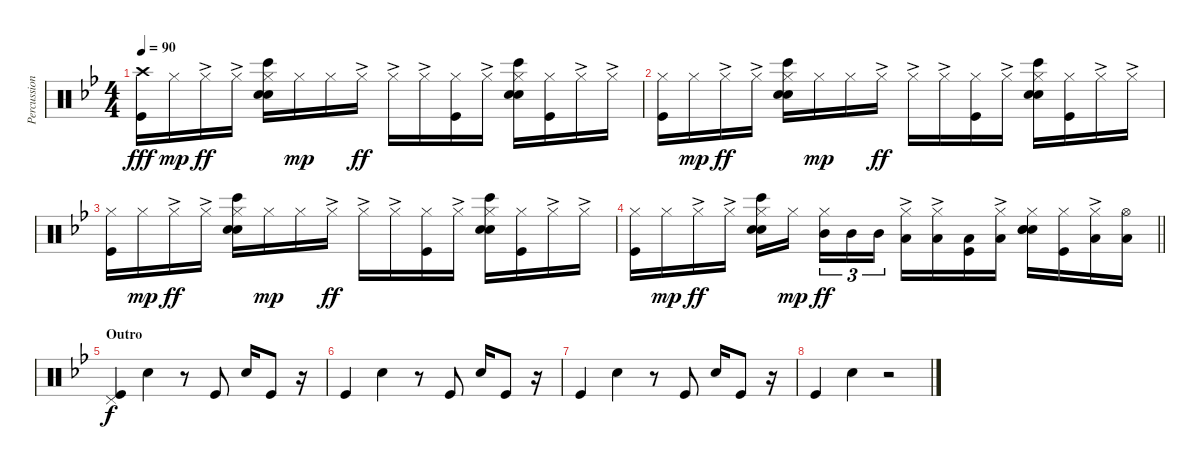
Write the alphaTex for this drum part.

\track ("Percussion" "Percussion") {instrument percussion}
\staff {score}
\articulation defaults
\ts (4 4)
\tempo 90
\clef neutral
\ks bb
("Kick (hit)" "Crash high (hit)").16{dy fff} "Hi-Hat (closed)".16{dy mp} "Hi-Hat (closed)"{ac}.16{dy ff} "Hi-Hat (closed)"{ac}.16 ("Hi-Hat (closed)" "Snare (hit) 2" "Bongo High (hit)" "Hand Clap (hit)").16 "Hi-Hat (closed)".16{dy mp} "Hi-Hat (closed)".16 "Hi-Hat (closed)"{ac}.16{dy ff} "Hi-Hat (closed)"{ac}.16 "Hi-Hat (closed)"{ac}.16 ("Hi-Hat (closed)" "Kick (hit)").16 "Hi-Hat (closed)"{ac}.16 ("Hi-Hat (closed)" "Snare (hit) 2" "Bongo High (hit)" "Hand Clap (hit)").16 ("Hi-Hat (closed)" "Kick (hit)").16 "Hi-Hat (closed)"{ac}.16 "Hi-Hat (closed)"{ac}.16 |
("Hi-Hat (closed)" "Kick (hit)").16 "Hi-Hat (closed)".16{dy mp} "Hi-Hat (closed)"{ac}.16{dy ff} "Hi-Hat (closed)"{ac}.16 ("Hi-Hat (closed)" "Snare (hit) 2" "Bongo High (hit)" "Hand Clap (hit)").16 "Hi-Hat (closed)".16{dy mp} "Hi-Hat (closed)".16 "Hi-Hat (closed)"{ac}.16{dy ff} "Hi-Hat (closed)"{ac}.16 "Hi-Hat (closed)"{ac}.16 ("Hi-Hat (closed)" "Kick (hit)").16 "Hi-Hat (closed)"{ac}.16 ("Hi-Hat (closed)" "Snare (hit) 2" "Bongo High (hit)" "Hand Clap (hit)").16 ("Hi-Hat (closed)" "Kick (hit)").16 "Hi-Hat (closed)"{ac}.16 "Hi-Hat (closed)"{ac}.16 |
("Hi-Hat (closed)" "Kick (hit)").16 "Hi-Hat (closed)".16{dy mp} "Hi-Hat (closed)"{ac}.16{dy ff} "Hi-Hat (closed)"{ac}.16 ("Hi-Hat (closed)" "Snare (hit) 2" "Bongo High (hit)" "Hand Clap (hit)").16 "Hi-Hat (closed)".16{dy mp} "Hi-Hat (closed)".16 "Hi-Hat (closed)"{ac}.16{dy ff} "Hi-Hat (closed)"{ac}.16 "Hi-Hat (closed)"{ac}.16 ("Hi-Hat (closed)" "Kick (hit)").16 "Hi-Hat (closed)"{ac}.16 ("Hi-Hat (closed)" "Snare (hit) 2" "Bongo High (hit)" "Hand Clap (hit)").16 ("Hi-Hat (closed)" "Kick (hit)").16 "Hi-Hat (closed)"{ac}.16 "Hi-Hat (closed)"{ac}.16 |
\barLineRight lightlight
("Hi-Hat (closed)" "Kick (hit)").16 "Hi-Hat (closed)".16{dy mp} "Hi-Hat (closed)"{ac}.16{dy ff} "Hi-Hat (closed)"{ac}.16 ("Hi-Hat (closed)" "Snare (hit) 2" "Bongo High (hit)" "Hand Clap (hit)").16 "Hi-Hat (closed)".16{dy mp beam splitsecondary} ("Hi-Hat (closed)" "Mid Tom (hit)").16{tu (3 2) dy ff} "Mid Tom (hit)".16{tu (3 2)} "Mid Tom (hit)".16{tu (3 2)} ("Hi-Hat (closed)"{ac} "Low Tom (hit)").16 ("Hi-Hat (closed)"{ac} "Low Tom (hit)").16 ("Kick (hit)" "Low Tom (hit)").16 ("Hi-Hat (closed)"{ac} "Low Tom (hit)").16 ("Hi-Hat (closed)" "Snare (hit) 2" "Hand Clap (hit)" "Hand Clap (hit)").16 ("Hi-Hat (closed)" "Kick (hit)").16 ("Hi-Hat (closed)"{ac} "Low Floor Tom (hit)").16 ("Hi-Hat (open)" "Low Floor Tom (hit)").16 |
\section ("" "Outro")
("Pedal Hi-Hat (hit)" "Kick (hit)").4{dy f} "Electric Snare (hit)".4 r.8 "Kick (hit)".8 "Electric Snare (hit)".16 "Kick (hit)".8 r.16 |
"Kick (hit)".4 "Electric Snare (hit)".4 r.8 "Kick (hit)".8 "Electric Snare (hit)".16 "Kick (hit)".8 r.16 |
"Kick (hit)".4 "Electric Snare (hit)".4 r.8 "Kick (hit)".8 "Electric Snare (hit)".16 "Kick (hit)".8 r.16 |
"Kick (hit)".4 "Electric Snare (hit)".4 r.2
